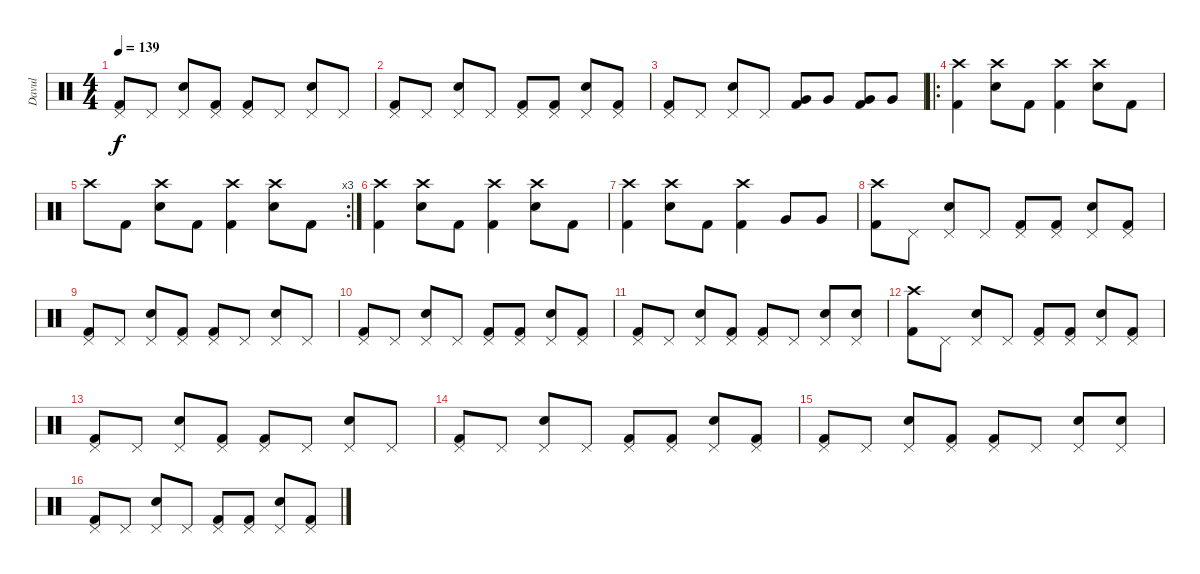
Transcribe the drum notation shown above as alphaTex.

\track ("Davul" "Davul") {instrument percussion}
\staff {score}
\articulation defaults
\ts (4 4)
\tempo 139
\clef neutral
\ks c
("Pedal Hi-Hat (hit)" "Kick (hit) 2").8{dy f} "Pedal Hi-Hat (hit)".8 ("Pedal Hi-Hat (hit)" "Snare (hit) 2").8 ("Pedal Hi-Hat (hit)" "Kick (hit) 2").8 ("Pedal Hi-Hat (hit)" "Kick (hit) 2").8 "Pedal Hi-Hat (hit)".8 ("Pedal Hi-Hat (hit)" "Snare (hit) 2").8 "Pedal Hi-Hat (hit)".8 |
("Pedal Hi-Hat (hit)" "Kick (hit) 2").8 "Pedal Hi-Hat (hit)".8 ("Pedal Hi-Hat (hit)" "Snare (hit) 2").8 "Pedal Hi-Hat (hit)".8 ("Pedal Hi-Hat (hit)" "Kick (hit) 2").8 ("Pedal Hi-Hat (hit)" "Kick (hit) 2").8 ("Pedal Hi-Hat (hit)" "Snare (hit) 2").8 ("Pedal Hi-Hat (hit)" "Kick (hit) 2").8 |
("Pedal Hi-Hat (hit)" "Kick (hit) 2").8 "Pedal Hi-Hat (hit)".8 ("Pedal Hi-Hat (hit)" "Snare (hit) 2").8 "Pedal Hi-Hat (hit)".8 ("Very Low Tom (hit)" "Kick (hit) 2").8 "Very Low Tom (hit)".8 ("Very Low Tom (hit)" "Kick (hit) 2").8 "Very Low Tom (hit)".8 |
\ro
("Crash high (hit)" "Kick (hit) 2").4 ("Crash high (hit)" "Snare (hit) 2").8 "Kick (hit) 2".8 ("Crash high (hit)" "Kick (hit) 2").4 ("Crash high (hit)" "Snare (hit) 2").8 "Kick (hit) 2".8 |
\rc 3 "Crash high (hit)".8 "Kick (hit) 2".8
("Crash high (hit)" "Snare (hit) 2").8 "Kick (hit) 2".8 ("Crash high (hit)" "Kick (hit) 2").4 ("Crash high (hit)" "Snare (hit) 2").8 "Kick (hit) 2".8 |
("Crash high (hit)" "Kick (hit) 2").4 ("Crash high (hit)" "Snare (hit) 2").8 "Kick (hit) 2".8 ("Crash high (hit)" "Kick (hit) 2").4 ("Crash high (hit)" "Snare (hit) 2").8 "Kick (hit) 2".8 |
("Crash high (hit)" "Kick (hit) 2").4 ("Crash high (hit)" "Snare (hit) 2").8 "Kick (hit) 2".8 ("Crash high (hit)" "Kick (hit) 2").4 "Very Low Tom (hit)".8 "Very Low Tom (hit)".8 |
("Crash high (hit)" "Kick (hit) 2").8 "Pedal Hi-Hat (hit)".8 ("Pedal Hi-Hat (hit)" "Snare (hit) 2").8 "Pedal Hi-Hat (hit)".8 ("Pedal Hi-Hat (hit)" "Kick (hit) 2").8 ("Pedal Hi-Hat (hit)" "Kick (hit) 2").8 ("Pedal Hi-Hat (hit)" "Snare (hit) 2").8 ("Pedal Hi-Hat (hit)" "Kick (hit) 2").8 |
("Pedal Hi-Hat (hit)" "Kick (hit) 2").8 "Pedal Hi-Hat (hit)".8 ("Pedal Hi-Hat (hit)" "Snare (hit) 2").8 ("Pedal Hi-Hat (hit)" "Kick (hit) 2").8 ("Pedal Hi-Hat (hit)" "Kick (hit) 2").8 "Pedal Hi-Hat (hit)".8 ("Pedal Hi-Hat (hit)" "Snare (hit) 2").8 "Pedal Hi-Hat (hit)".8 |
("Pedal Hi-Hat (hit)" "Kick (hit) 2").8 "Pedal Hi-Hat (hit)".8 ("Pedal Hi-Hat (hit)" "Snare (hit) 2").8 "Pedal Hi-Hat (hit)".8 ("Pedal Hi-Hat (hit)" "Kick (hit) 2").8 ("Pedal Hi-Hat (hit)" "Kick (hit) 2").8 ("Pedal Hi-Hat (hit)" "Snare (hit) 2").8 ("Pedal Hi-Hat (hit)" "Kick (hit) 2").8 |
("Pedal Hi-Hat (hit)" "Kick (hit) 2").8 "Pedal Hi-Hat (hit)".8 ("Pedal Hi-Hat (hit)" "Snare (hit) 2").8 ("Pedal Hi-Hat (hit)" "Kick (hit) 2").8 ("Pedal Hi-Hat (hit)" "Kick (hit) 2").8 "Pedal Hi-Hat (hit)".8 ("Pedal Hi-Hat (hit)" "Snare (hit) 2").8 ("Pedal Hi-Hat (hit)" "Snare (hit) 2").8 |
("Crash high (hit)" "Kick (hit) 2").8 "Pedal Hi-Hat (hit)".8 ("Pedal Hi-Hat (hit)" "Snare (hit) 2").8 "Pedal Hi-Hat (hit)".8 ("Pedal Hi-Hat (hit)" "Kick (hit) 2").8 ("Pedal Hi-Hat (hit)" "Kick (hit) 2").8 ("Pedal Hi-Hat (hit)" "Snare (hit) 2").8 ("Pedal Hi-Hat (hit)" "Kick (hit) 2").8 |
("Pedal Hi-Hat (hit)" "Kick (hit) 2").8 "Pedal Hi-Hat (hit)".8 ("Pedal Hi-Hat (hit)" "Snare (hit) 2").8 ("Pedal Hi-Hat (hit)" "Kick (hit) 2").8 ("Pedal Hi-Hat (hit)" "Kick (hit) 2").8 "Pedal Hi-Hat (hit)".8 ("Pedal Hi-Hat (hit)" "Snare (hit) 2").8 "Pedal Hi-Hat (hit)".8 |
("Pedal Hi-Hat (hit)" "Kick (hit) 2").8 "Pedal Hi-Hat (hit)".8 ("Pedal Hi-Hat (hit)" "Snare (hit) 2").8 "Pedal Hi-Hat (hit)".8 ("Pedal Hi-Hat (hit)" "Kick (hit) 2").8 ("Pedal Hi-Hat (hit)" "Kick (hit) 2").8 ("Pedal Hi-Hat (hit)" "Snare (hit) 2").8 ("Pedal Hi-Hat (hit)" "Kick (hit) 2").8 |
("Pedal Hi-Hat (hit)" "Kick (hit) 2").8 "Pedal Hi-Hat (hit)".8 ("Pedal Hi-Hat (hit)" "Snare (hit) 2").8 ("Pedal Hi-Hat (hit)" "Kick (hit) 2").8 ("Pedal Hi-Hat (hit)" "Kick (hit) 2").8 "Pedal Hi-Hat (hit)".8 ("Pedal Hi-Hat (hit)" "Snare (hit) 2").8 ("Pedal Hi-Hat (hit)" "Snare (hit) 2").8 |
("Pedal Hi-Hat (hit)" "Kick (hit) 2").8 "Pedal Hi-Hat (hit)".8 ("Pedal Hi-Hat (hit)" "Snare (hit) 2").8 "Pedal Hi-Hat (hit)".8 ("Pedal Hi-Hat (hit)" "Kick (hit) 2").8 ("Pedal Hi-Hat (hit)" "Kick (hit) 2").8 ("Pedal Hi-Hat (hit)" "Snare (hit) 2").8 ("Pedal Hi-Hat (hit)" "Kick (hit) 2").8
